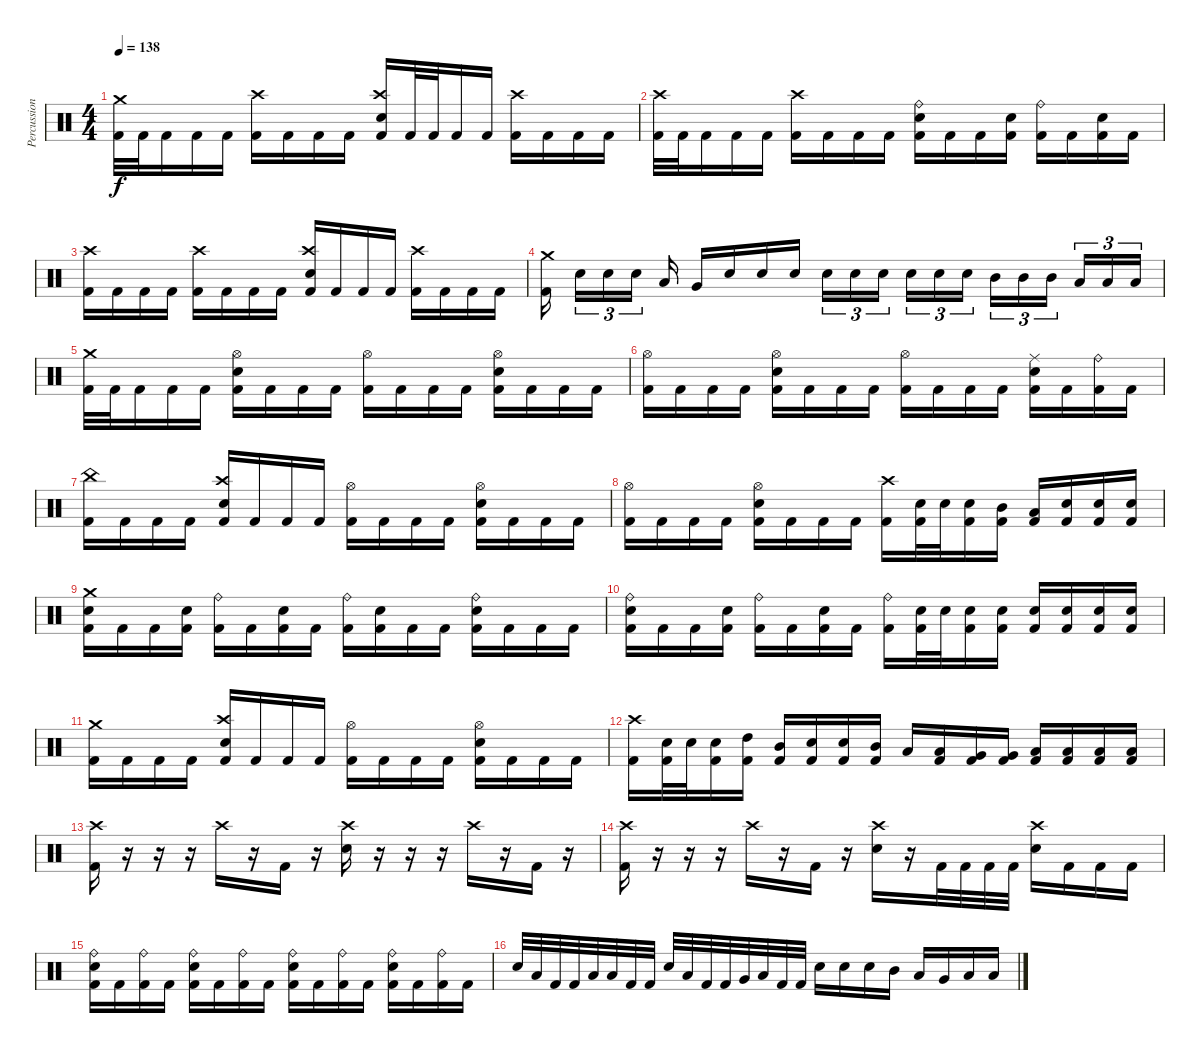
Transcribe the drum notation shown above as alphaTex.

\track ("Percussion" "Percussion") {instrument percussion}
\staff {score}
\articulation defaults
\ts (4 4)
\tempo 138
\clef neutral
\ks c
("Crash medium (hit)" "Kick (hit) 2").32{dy f} "Kick (hit) 2".32 "Kick (hit) 2".16 "Kick (hit) 2".16 "Kick (hit) 2".16 ("Crash high (hit)" "Kick (hit) 2").16 "Kick (hit) 2".16 "Kick (hit) 2".16 "Kick (hit) 2".16 ("Crash high (hit)" "Electric Snare (hit)" "Kick (hit) 2").16 "Kick (hit) 2".32 "Kick (hit) 2".32 "Kick (hit) 2".16 "Kick (hit) 2".16 ("Crash high (hit)" "Kick (hit) 2").16 "Kick (hit) 2".16 "Kick (hit) 2".16 "Kick (hit) 2".16 |
("Crash high (hit)" "Kick (hit) 2").32 "Kick (hit) 2".32 "Kick (hit) 2".16 "Kick (hit) 2".16 "Kick (hit) 2".16 ("Crash high (hit)" "Kick (hit) 2").16 "Kick (hit) 2".16 "Kick (hit) 2".16 "Kick (hit) 2".16 ("Ride (bell)" "Electric Snare (hit)" "Kick (hit) 2").16 "Kick (hit) 2".16 "Kick (hit) 2".16 ("Electric Snare (hit)" "Kick (hit) 2").16 ("Ride (bell)" "Kick (hit) 2").16 "Kick (hit) 2".16 ("Electric Snare (hit)" "Kick (hit) 2").16 "Kick (hit) 2".16 |
("Crash high (hit)" "Kick (hit) 2").16 "Kick (hit) 2".16 "Kick (hit) 2".16 "Kick (hit) 2".16 ("Crash high (hit)" "Kick (hit) 2").16 "Kick (hit) 2".16 "Kick (hit) 2".16 "Kick (hit) 2".16 ("Crash high (hit)" "Electric Snare (hit)" "Kick (hit) 2").16 "Kick (hit) 2".16 "Kick (hit) 2".16 "Kick (hit) 2".16 ("Crash high (hit)" "Kick (hit) 2").16 "Kick (hit) 2".16 "Kick (hit) 2".16 "Kick (hit) 2".16 |
("Crash medium (hit)" "Kick (hit) 2").16{beam splitsecondary} "Electric Snare (hit)".16{tu (3 2)} "Electric Snare (hit)".16{tu (3 2)} "Electric Snare (hit)".16{tu (3 2) beam splitsecondary} "Low Tom (hit)".16 "Very Low Tom (hit)".16 "Electric Snare (hit)".16 "Electric Snare (hit)".16 "Electric Snare (hit)".16 "Electric Snare (hit)".16{tu (3 2)} "Electric Snare (hit)".16{tu (3 2)} "Electric Snare (hit)".16{tu (3 2) beam splitsecondary} "Electric Snare (hit)".16{tu (3 2)} "Electric Snare (hit)".16{tu (3 2)} "Electric Snare (hit)".16{tu (3 2)} "Mid Tom (hit)".16{tu (3 2)} "Mid Tom (hit)".16{tu (3 2)} "Mid Tom (hit)".16{tu (3 2) beam splitsecondary} "Low Tom (hit)".16{tu (3 2)} "Low Tom (hit)".16{tu (3 2)} "Low Tom (hit)".16{tu (3 2)} |
("Crash medium (hit)" "Kick (hit) 2").32 "Kick (hit) 2".32 "Kick (hit) 2".16 "Kick (hit) 2".16 "Kick (hit) 2".16 ("Hi-Hat (open)" "Electric Snare (hit)" "Kick (hit) 2").16 "Kick (hit) 2".16 "Kick (hit) 2".16 "Kick (hit) 2".16 ("Hi-Hat (open)" "Kick (hit) 2").16 "Kick (hit) 2".16 "Kick (hit) 2".16 "Kick (hit) 2".16 ("Hi-Hat (open)" "Electric Snare (hit)" "Kick (hit) 2").16 "Kick (hit) 2".16 "Kick (hit) 2".16 "Kick (hit) 2".16 |
("Hi-Hat (open)" "Kick (hit) 2").16 "Kick (hit) 2".16 "Kick (hit) 2".16 "Kick (hit) 2".16 ("Hi-Hat (open)" "Electric Snare (hit)" "Kick (hit) 2").16 "Kick (hit) 2".16 "Kick (hit) 2".16 "Kick (hit) 2".16 ("Hi-Hat (open)" "Kick (hit) 2").16 "Kick (hit) 2".16 "Kick (hit) 2".16 "Kick (hit) 2".16 ("Ride (middle)" "Electric Snare (hit)" "Kick (hit) 2").16 "Kick (hit) 2".16 ("Ride (bell)" "Kick (hit) 2").16 "Kick (hit) 2".16 |
("China (hit)" "Kick (hit) 2").16 "Kick (hit) 2".16 "Kick (hit) 2".16 "Kick (hit) 2".16 ("Crash high (hit)" "Electric Snare (hit)" "Kick (hit) 2").16 "Kick (hit) 2".16 "Kick (hit) 2".16 "Kick (hit) 2".16 ("Hi-Hat (open)" "Kick (hit) 2").16 "Kick (hit) 2".16 "Kick (hit) 2".16 "Kick (hit) 2".16 ("Hi-Hat (open)" "Electric Snare (hit)" "Kick (hit) 2").16 "Kick (hit) 2".16 "Kick (hit) 2".16 "Kick (hit) 2".16 |
("Hi-Hat (open)" "Kick (hit) 2").16 "Kick (hit) 2".16 "Kick (hit) 2".16 "Kick (hit) 2".16 ("Hi-Hat (open)" "Electric Snare (hit)" "Kick (hit) 2").16 "Kick (hit) 2".16 "Kick (hit) 2".16 "Kick (hit) 2".16 ("Crash high (hit)" "Kick (hit) 2").16 ("Electric Snare (hit)" "Kick (hit) 2").32 "Electric Snare (hit)".32 ("Electric Snare (hit)" "Kick (hit) 2").16 ("Mid Tom (hit)" "Kick (hit) 2").16 ("Low Tom (hit)" "Kick (hit) 2").16 ("Electric Snare (hit)" "Kick (hit) 2").16 ("Electric Snare (hit)" "Kick (hit) 2").16 ("Electric Snare (hit)" "Kick (hit) 2").16 |
("Crash medium (hit)" "Electric Snare (hit)" "Kick (hit) 2").16 "Kick (hit) 2".16 "Kick (hit) 2".16 ("Electric Snare (hit)" "Kick (hit) 2").16 ("Ride (bell)" "Kick (hit) 2").16 "Kick (hit) 2".16 ("Electric Snare (hit)" "Kick (hit) 2").16 "Kick (hit) 2".16 ("Ride (bell)" "Kick (hit) 2").16 ("Electric Snare (hit)" "Kick (hit) 2").16 "Kick (hit) 2".16 "Kick (hit) 2".16 ("Ride (bell)" "Electric Snare (hit)" "Kick (hit) 2").16 "Kick (hit) 2".16 "Kick (hit) 2".16 "Kick (hit) 2".16 |
("Ride (bell)" "Electric Snare (hit)" "Kick (hit) 2").16 "Kick (hit) 2".16 "Kick (hit) 2".16 ("Electric Snare (hit)" "Kick (hit) 2").16 ("Ride (bell)" "Kick (hit) 2").16 "Kick (hit) 2".16 ("Electric Snare (hit)" "Kick (hit) 2").16 "Kick (hit) 2".16 ("Ride (bell)" "Kick (hit) 2").16 ("Electric Snare (hit)" "Kick (hit) 2").32 "Electric Snare (hit)".32 ("Electric Snare (hit)" "Kick (hit) 2").16 ("Electric Snare (hit)" "Kick (hit) 2").16 ("Electric Snare (hit)" "Kick (hit) 2").16 ("Electric Snare (hit)" "Kick (hit) 2").16 ("Electric Snare (hit)" "Kick (hit) 2").16 ("Electric Snare (hit)" "Kick (hit) 2").16 |
("Crash medium (hit)" "Kick (hit) 2").16 "Kick (hit) 2".16 "Kick (hit) 2".16 "Kick (hit) 2".16 ("Crash high (hit)" "Electric Snare (hit)" "Kick (hit) 2").16 "Kick (hit) 2".16 "Kick (hit) 2".16 "Kick (hit) 2".16 ("Hi-Hat (open)" "Kick (hit) 2").16 "Kick (hit) 2".16 "Kick (hit) 2".16 "Kick (hit) 2".16 ("Hi-Hat (open)" "Electric Snare (hit)" "Kick (hit) 2").16 "Kick (hit) 2".16 "Kick (hit) 2".16 "Kick (hit) 2".16 |
("Crash high (hit)" "Kick (hit) 2").16 ("Electric Snare (hit)" "Kick (hit) 2").32 "Electric Snare (hit)".32 ("Electric Snare (hit)" "Kick (hit) 2").16 ("High Tom (hit)" "Kick (hit) 2").16 ("Mid Tom (hit)" "Kick (hit) 2").16 ("Electric Snare (hit)" "Kick (hit) 2").16 ("Electric Snare (hit)" "Kick (hit) 2").16 ("Mid Tom (hit)" "Kick (hit) 2").16 "Low Tom (hit)".16 ("Low Tom (hit)" "Kick (hit) 2").16 ("Very Low Tom (hit)" "Kick (hit) 2").16 ("Very Low Tom (hit)" "Kick (hit) 2").16 ("Low Floor Tom (hit)" "Kick (hit) 2").16 ("Low Floor Tom (hit)" "Kick (hit) 2").16 ("Low Floor Tom (hit)" "Kick (hit) 2").16 ("Low Floor Tom (hit)" "Kick (hit) 2").16 |
("Crash high (hit)" "Kick (hit) 2").16 r.16 r.16 r.16 "Crash high (hit)".16 r.16 "Kick (hit) 2".16 r.16 ("Crash high (hit)" "Electric Snare (hit)").16 r.16 r.16 r.16 "Crash high (hit)".16 r.16 "Kick (hit) 2".16 r.16 |
("Crash high (hit)" "Kick (hit) 2").16 r.16 r.16 r.16 "Crash high (hit)".16 r.16 "Kick (hit) 2".16 r.16 ("Crash high (hit)" "Electric Snare (hit)").16 r.16 "Kick (hit) 2".32 "Kick (hit) 2".32 "Kick (hit) 2".32 "Kick (hit) 2".32 ("Crash high (hit)" "Electric Snare (hit)").16 "Kick (hit) 2".16 "Kick (hit) 2".16 "Kick (hit) 2".16 |
("Ride (bell)" "Electric Snare (hit)" "Kick (hit) 2").16 "Kick (hit) 2".16 ("Ride (bell)" "Kick (hit) 2").16 "Kick (hit) 2".16 ("Ride (bell)" "Electric Snare (hit)" "Kick (hit) 2").16 "Kick (hit) 2".16 ("Ride (bell)" "Kick (hit) 2").16 "Kick (hit) 2".16 ("Ride (bell)" "Electric Snare (hit)" "Kick (hit) 2").16 "Kick (hit) 2".16 ("Ride (bell)" "Kick (hit) 2").16 "Kick (hit) 2".16 ("Ride (bell)" "Electric Snare (hit)" "Kick (hit) 2").16 "Kick (hit) 2".16 ("Ride (bell)" "Kick (hit) 2").16 "Kick (hit) 2".16 |
"Electric Snare (hit)".32 "Low Floor Tom (hit)".32 "Kick (hit) 2".32 "Kick (hit) 2".32 "Low Tom (hit)".32 "Low Floor Tom (hit)".32 "Kick (hit) 2".32 "Kick (hit) 2".32 "Electric Snare (hit)".32 "Low Floor Tom (hit)".32 "Kick (hit) 2".32 "Kick (hit) 2".32 "Very Low Tom (hit)".32 "Low Floor Tom (hit)".32 "Kick (hit) 2".32 "Kick (hit) 2".32 "Electric Snare (hit)".16 "Electric Snare (hit)".16 "Electric Snare (hit)".16 "Mid Tom (hit)".16 "Low Tom (hit)".16 "Very Low Tom (hit)".16 "Low Floor Tom (hit)".16 "Low Floor Tom (hit)".16
